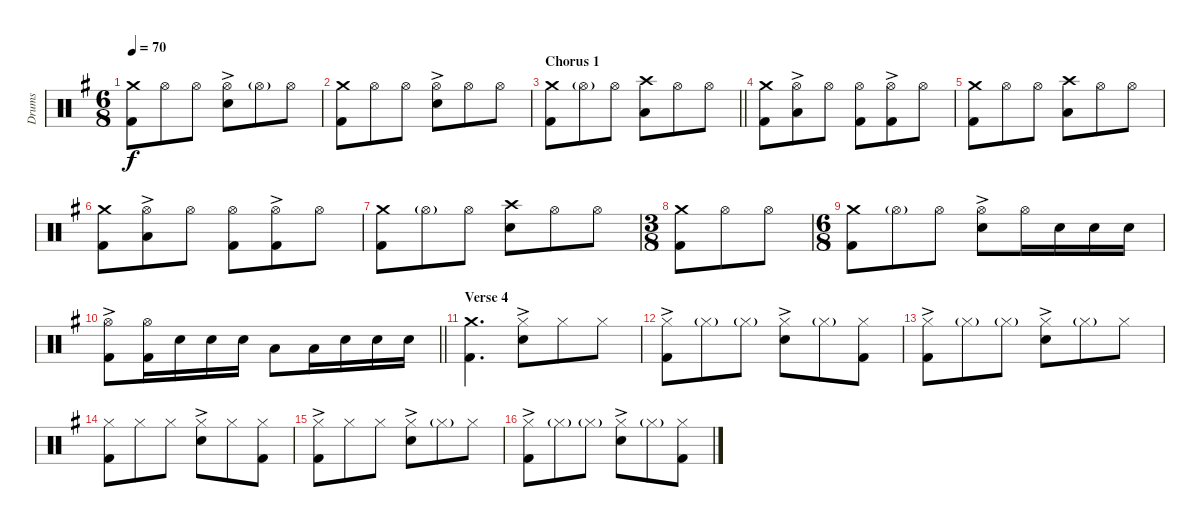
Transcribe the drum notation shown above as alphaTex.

\track ("Drums" "Drums") {instrument percussion}
\staff {score}
\articulation defaults
\ts (6 8)
\tempo 70
\clef neutral
\ks g
("Crash medium (hit)" "Kick (hit) 2").8{dy f} "Hi-Hat (open)".8 "Hi-Hat (open)".8 ("Hi-Hat (open)"{ac} "Snare (hit) 2").8 "Hi-Hat (open)"{g}.8 "Hi-Hat (open)".8 |
("Crash medium (hit)" "Kick (hit) 2").8 "Hi-Hat (open)".8 "Hi-Hat (open)".8 ("Hi-Hat (open)"{ac} "Snare (hit) 2").8 "Hi-Hat (open)".8 "Hi-Hat (open)".8 |
\section ("" "Chorus 1")
\barLineRight lightlight
("Crash medium (hit)" "Kick (hit) 2").8 "Hi-Hat (open)"{g}.8 "Hi-Hat (open)".8 ("Crash high (hit)" "Low Tom (hit)").8 "Hi-Hat (open)".8 "Hi-Hat (open)".8 |
("Crash medium (hit)" "Kick (hit) 2").8 ("Hi-Hat (open)"{ac} "Low Tom (hit)").8 "Hi-Hat (open)".8 ("Hi-Hat (open)" "Kick (hit) 2").8 ("Hi-Hat (open)"{ac} "Kick (hit) 2").8 "Hi-Hat (open)".8 |
("Crash medium (hit)" "Kick (hit) 2").8 "Hi-Hat (open)".8 "Hi-Hat (open)".8 ("Crash high (hit)" "Low Tom (hit)").8 "Hi-Hat (open)".8 "Hi-Hat (open)".8 |
("Crash medium (hit)" "Kick (hit) 2").8 ("Hi-Hat (open)"{ac} "Low Tom (hit)").8 "Hi-Hat (open)".8 ("Hi-Hat (open)" "Kick (hit) 2").8 ("Hi-Hat (open)"{ac} "Kick (hit) 2").8 "Hi-Hat (open)".8 |
("Crash medium (hit)" "Kick (hit) 2").8 "Hi-Hat (open)"{g}.8 "Hi-Hat (open)".8 ("Crash high (hit)" "Snare (hit) 2").8 "Hi-Hat (open)".8 "Hi-Hat (open)".8 |
\ts (3 8)
("Crash medium (hit)" "Kick (hit) 2").8 "Hi-Hat (open)".8 "Hi-Hat (open)".8 |
\ts (6 8)
("Crash medium (hit)" "Kick (hit) 2").8 "Hi-Hat (open)"{g}.8 "Hi-Hat (open)".8 ("Hi-Hat (open)"{ac} "Snare (hit) 2").8 "Hi-Hat (open)".16 "Snare (hit) 2".16 "Snare (hit) 2".16 "Snare (hit) 2".16 |
\barLineRight lightlight
("Hi-Hat (open)"{ac} "Kick (hit) 2").8 ("Hi-Hat (open)" "Kick (hit) 2").16 "Snare (hit) 2".16 "Snare (hit) 2".16 "Snare (hit) 2".16 "Low Tom (hit)".8 "Low Tom (hit)".16 "Snare (hit) 2".16 "Snare (hit) 2".16 "Snare (hit) 2".16 |
\section ("" "Verse 4")
("Crash medium (hit)" "Kick (hit) 2").4{d} ("Hi-Hat (closed)" "Snare (hit) 2"{ac}).8 "Hi-Hat (closed)".8 "Hi-Hat (closed)".8 |
("Hi-Hat (closed)"{ac} "Kick (hit) 2").8 "Hi-Hat (closed)"{g}.8 "Hi-Hat (closed)"{g}.8 ("Hi-Hat (closed)"{ac} "Snare (hit) 2").8 "Hi-Hat (closed)"{g}.8 ("Hi-Hat (closed)" "Kick (hit) 2").8 |
("Hi-Hat (closed)"{ac} "Kick (hit) 2").8 "Hi-Hat (closed)"{g}.8 "Hi-Hat (closed)"{g}.8 ("Hi-Hat (closed)"{ac} "Snare (hit) 2").8 "Hi-Hat (closed)"{g}.8 "Hi-Hat (closed)".8 |
("Hi-Hat (closed)" "Kick (hit) 2").8 "Hi-Hat (closed)".8 "Hi-Hat (closed)".8 ("Hi-Hat (closed)" "Snare (hit) 2"{ac}).8 "Hi-Hat (closed)".8 ("Hi-Hat (closed)" "Kick (hit) 2").8 |
("Hi-Hat (closed)"{ac} "Kick (hit) 2").8 "Hi-Hat (closed)".8 "Hi-Hat (closed)".8 ("Hi-Hat (closed)"{ac} "Snare (hit) 2").8 "Hi-Hat (closed)"{g}.8 "Hi-Hat (closed)".8 |
("Hi-Hat (closed)"{ac} "Kick (hit) 2").8 "Hi-Hat (closed)"{g}.8 "Hi-Hat (closed)"{g}.8 ("Hi-Hat (closed)"{ac} "Snare (hit) 2").8 "Hi-Hat (closed)"{g}.8 ("Hi-Hat (closed)" "Kick (hit) 2").8
